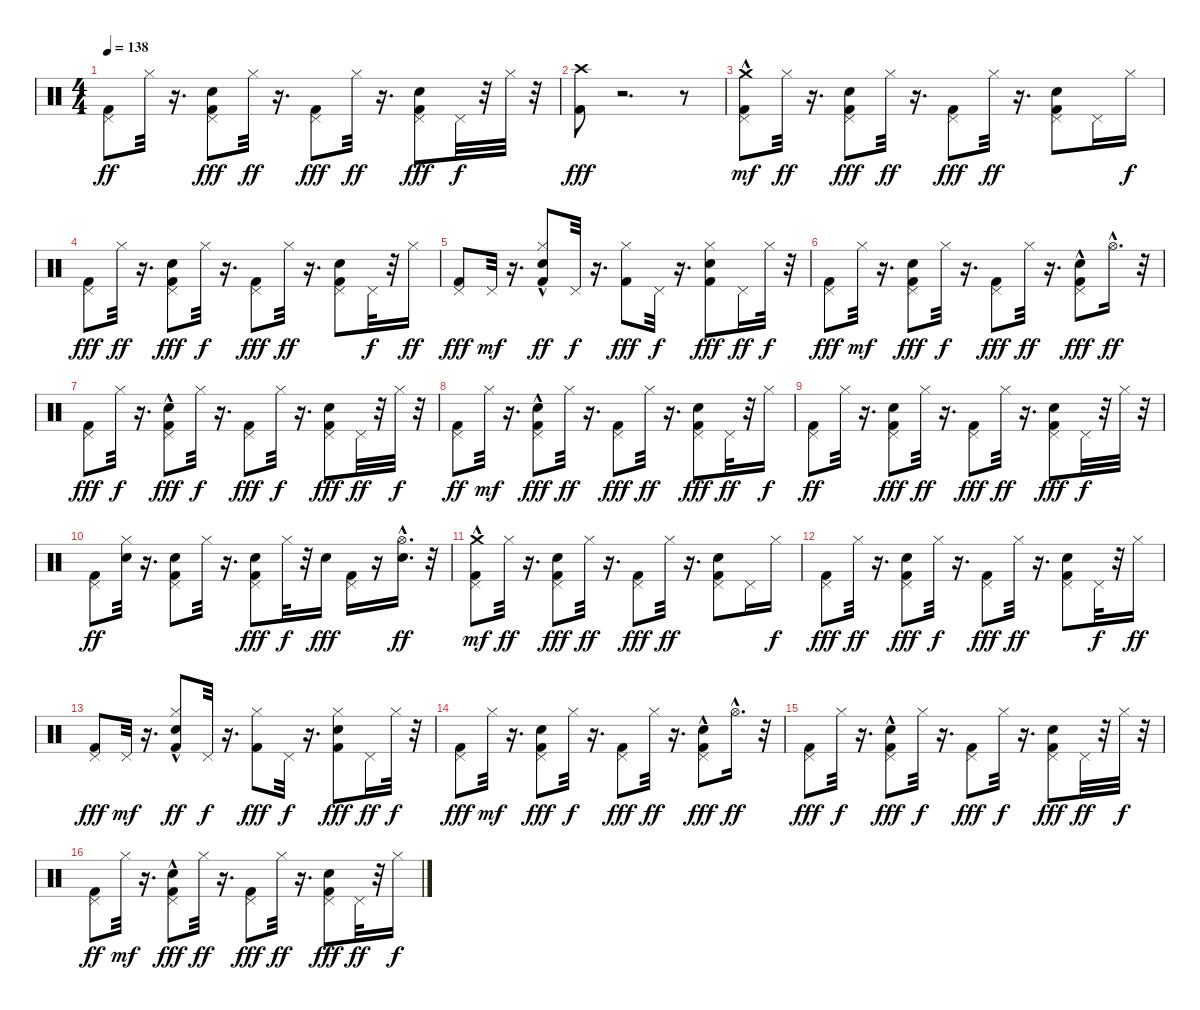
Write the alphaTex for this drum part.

\track "" {instrument percussion}
\staff {score}
\articulation defaults
\ts (4 4)
\tempo 138
\clef neutral
\ks c
("Kick (hit) 2" "Pedal Hi-Hat (hit)").8{dy ff} "Hi-Hat (closed)".32 r.16{d} ("Pedal Hi-Hat (hit)" "Snare (hit) 2" "Kick (hit) 2").8{dy fff} "Hi-Hat (closed)".32{dy ff} r.16{d} ("Kick (hit) 2" "Pedal Hi-Hat (hit)").8{dy fff} "Hi-Hat (closed)".32{dy ff} r.16{d} ("Pedal Hi-Hat (hit)" "Snare (hit) 2" "Kick (hit) 2").8{dy fff} "Pedal Hi-Hat (hit)".32{dy f} r.32 "Hi-Hat (closed)".32 r.32 |
("Crash high (hit)" "Kick (hit) 2").8{dy fff} r.2{d} r.8 |
("Kick (hit) 2" "Pedal Hi-Hat (hit)" "Crash medium (hit)"{hac}).8{dy mf} "Hi-Hat (closed)".32{dy ff} r.16{d} ("Pedal Hi-Hat (hit)" "Kick (hit) 2" "Snare (hit) 2").8{dy fff} "Hi-Hat (closed)".32{dy ff} r.16{d} ("Pedal Hi-Hat (hit)" "Kick (hit) 2").8{dy fff} "Hi-Hat (closed)".32{dy ff} r.16{d} ("Snare (hit) 2" "Kick (hit) 2" "Pedal Hi-Hat (hit)").8 "Pedal Hi-Hat (hit)".16 "Hi-Hat (closed)".16{dy f} |
("Kick (hit) 2" "Pedal Hi-Hat (hit)").8{dy fff} "Hi-Hat (closed)".32{dy ff} r.16{d} ("Kick (hit) 2" "Snare (hit) 2" "Pedal Hi-Hat (hit)").8{dy fff} "Hi-Hat (closed)".32{dy f} r.16{d} ("Pedal Hi-Hat (hit)" "Kick (hit) 2").8{dy fff} "Hi-Hat (closed)".32{dy ff} r.16{d} ("Kick (hit) 2" "Snare (hit) 2" "Pedal Hi-Hat (hit)").8 "Pedal Hi-Hat (hit)".32{dy f} r.32 "Hi-Hat (closed)".16{dy ff} |
("Kick (hit) 2" "Pedal Hi-Hat (hit)").8{dy fff} "Pedal Hi-Hat (hit)".32{dy mf} r.16{d} ("Snare (hit) 2"{hac} "Kick (hit) 2" "Hi-Hat (closed)").8{dy ff} "Pedal Hi-Hat (hit)".32{dy f} r.16{d} ("Hi-Hat (closed)" "Kick (hit) 2").8{dy fff} "Pedal Hi-Hat (hit)".32{dy f} r.16{d} ("Snare (hit) 2" "Hi-Hat (closed)" "Kick (hit) 2").8{dy fff} "Pedal Hi-Hat (hit)".16{dy ff} "Hi-Hat (closed)".32{dy f} r.32 |
("Kick (hit) 2" "Pedal Hi-Hat (hit)").8{dy fff} "Hi-Hat (closed)".32{dy mf} r.16{d} ("Snare (hit) 2" "Kick (hit) 2" "Pedal Hi-Hat (hit)").8{dy fff} "Hi-Hat (closed)".32{dy f} r.16{d} ("Pedal Hi-Hat (hit)" "Kick (hit) 2").8{dy fff} "Hi-Hat (closed)".32{dy ff} r.16{d} ("Pedal Hi-Hat (hit)" "Snare (hit) 2"{hac} "Kick (hit) 2").8{dy fff} "Hi-Hat (open)"{hac}.16{d dy ff} r.32 |
("Kick (hit) 2" "Pedal Hi-Hat (hit)").8{dy fff} "Hi-Hat (closed)".32{dy f} r.16{d} ("Pedal Hi-Hat (hit)" "Snare (hit) 2"{hac} "Kick (hit) 2").8{dy fff} "Hi-Hat (closed)".32{dy f} r.16{d} ("Kick (hit) 2" "Pedal Hi-Hat (hit)").8{dy fff} "Hi-Hat (closed)".32{dy f} r.16{d} ("Kick (hit) 2" "Snare (hit) 2" "Pedal Hi-Hat (hit)").8{dy fff} "Pedal Hi-Hat (hit)".32{dy ff} r.32 "Hi-Hat (closed)".32{dy f} r.32 |
("Kick (hit) 2" "Pedal Hi-Hat (hit)").8{dy ff} "Hi-Hat (closed)".32{dy mf} r.16{d} ("Snare (hit) 2"{hac} "Kick (hit) 2" "Pedal Hi-Hat (hit)").8{dy fff} "Hi-Hat (closed)".32{dy ff} r.16{d} ("Pedal Hi-Hat (hit)" "Kick (hit) 2").8{dy fff} "Hi-Hat (closed)".32{dy ff} r.16{d} ("Snare (hit) 2" "Kick (hit) 2" "Pedal Hi-Hat (hit)").8{dy fff} "Pedal Hi-Hat (hit)".32{dy ff} r.32 "Hi-Hat (closed)".16{dy f} |
("Kick (hit) 2" "Pedal Hi-Hat (hit)").8{dy ff} "Hi-Hat (closed)".32 r.16{d} ("Pedal Hi-Hat (hit)" "Snare (hit) 2" "Kick (hit) 2").8{dy fff} "Hi-Hat (closed)".32{dy ff} r.16{d} ("Kick (hit) 2" "Pedal Hi-Hat (hit)").8{dy fff} "Hi-Hat (closed)".32{dy ff} r.16{d} ("Pedal Hi-Hat (hit)" "Snare (hit) 2" "Kick (hit) 2").8{dy fff} "Pedal Hi-Hat (hit)".32{dy f} r.32 "Hi-Hat (closed)".32 r.32 |
("Kick (hit) 2" "Pedal Hi-Hat (hit)").8{dy ff} ("Hi-Hat (closed)" "Snare (hit) 2").32 r.16{d} ("Pedal Hi-Hat (hit)" "Kick (hit) 2" "Snare (hit) 2").8 "Hi-Hat (closed)".32 r.16{d} ("Snare (hit) 2" "Kick (hit) 2" "Pedal Hi-Hat (hit)").8{dy fff} "Hi-Hat (closed)".32{dy f} r.32 "Snare (hit) 2".16{dy fff} ("Pedal Hi-Hat (hit)" "Kick (hit) 2").16 r.16 ("Snare (hit) 2" "Hi-Hat (open)"{hac}).16{d dy ff} r.32 |
("Kick (hit) 2" "Pedal Hi-Hat (hit)" "Crash medium (hit)"{hac}).8{dy mf} "Hi-Hat (closed)".32{dy ff} r.16{d} ("Pedal Hi-Hat (hit)" "Kick (hit) 2" "Snare (hit) 2").8{dy fff} "Hi-Hat (closed)".32{dy ff} r.16{d} ("Pedal Hi-Hat (hit)" "Kick (hit) 2").8{dy fff} "Hi-Hat (closed)".32{dy ff} r.16{d} ("Snare (hit) 2" "Kick (hit) 2" "Pedal Hi-Hat (hit)").8 "Pedal Hi-Hat (hit)".16 "Hi-Hat (closed)".16{dy f} |
("Kick (hit) 2" "Pedal Hi-Hat (hit)").8{dy fff} "Hi-Hat (closed)".32{dy ff} r.16{d} ("Kick (hit) 2" "Snare (hit) 2" "Pedal Hi-Hat (hit)").8{dy fff} "Hi-Hat (closed)".32{dy f} r.16{d} ("Pedal Hi-Hat (hit)" "Kick (hit) 2").8{dy fff} "Hi-Hat (closed)".32{dy ff} r.16{d} ("Kick (hit) 2" "Snare (hit) 2" "Pedal Hi-Hat (hit)").8 "Pedal Hi-Hat (hit)".32{dy f} r.32 "Hi-Hat (closed)".16{dy ff} |
("Kick (hit) 2" "Pedal Hi-Hat (hit)").8{dy fff} "Pedal Hi-Hat (hit)".32{dy mf} r.16{d} ("Snare (hit) 2"{hac} "Kick (hit) 2" "Hi-Hat (closed)").8{dy ff} "Pedal Hi-Hat (hit)".32{dy f} r.16{d} ("Hi-Hat (closed)" "Kick (hit) 2").8{dy fff} "Pedal Hi-Hat (hit)".32{dy f} r.16{d} ("Snare (hit) 2" "Hi-Hat (closed)" "Kick (hit) 2").8{dy fff} "Pedal Hi-Hat (hit)".16{dy ff} "Hi-Hat (closed)".32{dy f} r.32 |
("Kick (hit) 2" "Pedal Hi-Hat (hit)").8{dy fff} "Hi-Hat (closed)".32{dy mf} r.16{d} ("Snare (hit) 2" "Kick (hit) 2" "Pedal Hi-Hat (hit)").8{dy fff} "Hi-Hat (closed)".32{dy f} r.16{d} ("Pedal Hi-Hat (hit)" "Kick (hit) 2").8{dy fff} "Hi-Hat (closed)".32{dy ff} r.16{d} ("Pedal Hi-Hat (hit)" "Snare (hit) 2"{hac} "Kick (hit) 2").8{dy fff} "Hi-Hat (open)"{hac}.16{d dy ff} r.32 |
("Kick (hit) 2" "Pedal Hi-Hat (hit)").8{dy fff} "Hi-Hat (closed)".32{dy f} r.16{d} ("Pedal Hi-Hat (hit)" "Snare (hit) 2"{hac} "Kick (hit) 2").8{dy fff} "Hi-Hat (closed)".32{dy f} r.16{d} ("Kick (hit) 2" "Pedal Hi-Hat (hit)").8{dy fff} "Hi-Hat (closed)".32{dy f} r.16{d} ("Kick (hit) 2" "Snare (hit) 2" "Pedal Hi-Hat (hit)").8{dy fff} "Pedal Hi-Hat (hit)".32{dy ff} r.32 "Hi-Hat (closed)".32{dy f} r.32 |
("Kick (hit) 2" "Pedal Hi-Hat (hit)").8{dy ff} "Hi-Hat (closed)".32{dy mf} r.16{d} ("Snare (hit) 2"{hac} "Kick (hit) 2" "Pedal Hi-Hat (hit)").8{dy fff} "Hi-Hat (closed)".32{dy ff} r.16{d} ("Pedal Hi-Hat (hit)" "Kick (hit) 2").8{dy fff} "Hi-Hat (closed)".32{dy ff} r.16{d} ("Snare (hit) 2" "Kick (hit) 2" "Pedal Hi-Hat (hit)").8{dy fff} "Pedal Hi-Hat (hit)".32{dy ff} r.32 "Hi-Hat (closed)".16{dy f}
